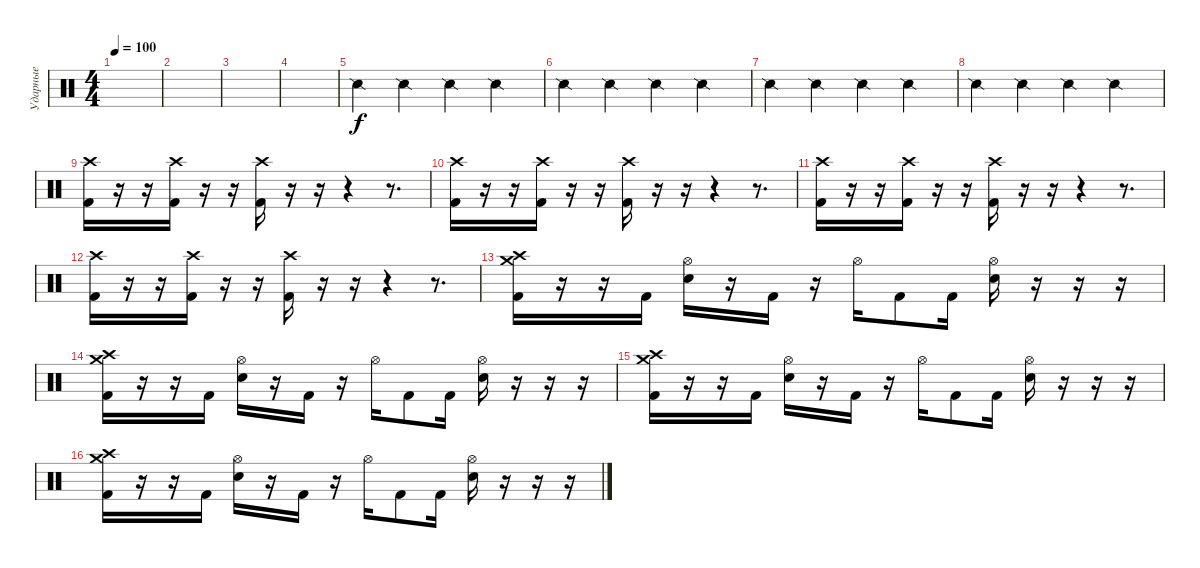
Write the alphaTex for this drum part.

\track ("Ударные" "Ударные") {instrument percussion}
\staff {score}
\articulation defaults
\ts (4 4)
\tempo 100
\clef neutral
\ks c
|
|
|
|
"Snare (side stick) 2".4 "Snare (side stick) 2".4 "Snare (side stick) 2".4 "Snare (side stick) 2".4 |
"Snare (side stick) 2".4 "Snare (side stick) 2".4 "Snare (side stick) 2".4 "Snare (side stick) 2".4 |
"Snare (side stick) 2".4 "Snare (side stick) 2".4 "Snare (side stick) 2".4 "Snare (side stick) 2".4 |
"Snare (side stick) 2".4 "Snare (side stick) 2".4 "Snare (side stick) 2".4 "Snare (side stick) 2".4 |
("Crash high (hit)" "Kick (hit) 2").16 r.16 r.16 ("Crash high (hit)" "Kick (hit) 2").16 r.16 r.16 ("Crash high (hit)" "Kick (hit) 2").16 r.16 r.16 r.4 r.8{d} |
("Crash high (hit)" "Kick (hit) 2").16 r.16 r.16 ("Crash high (hit)" "Kick (hit) 2").16 r.16 r.16 ("Crash high (hit)" "Kick (hit) 2").16 r.16 r.16 r.4 r.8{d} |
("Crash high (hit)" "Kick (hit) 2").16 r.16 r.16 ("Crash high (hit)" "Kick (hit) 2").16 r.16 r.16 ("Crash high (hit)" "Kick (hit) 2").16 r.16 r.16 r.4 r.8{d} |
("Crash high (hit)" "Kick (hit) 2").16 r.16 r.16 ("Crash high (hit)" "Kick (hit) 2").16 r.16 r.16 ("Crash high (hit)" "Kick (hit) 2").16 r.16 r.16 r.4 r.8{d} |
("Kick (hit) 2" "Crash high (hit)" "Crash medium (hit)").16 r.16 r.16 "Kick (hit) 2".16 ("Electric Snare (hit)" "Hi-Hat (open)").16 r.16 "Kick (hit) 2".16 r.16 "Hi-Hat (open)".16 "Kick (hit) 2".8 "Kick (hit) 2".16 ("Electric Snare (hit)" "Hi-Hat (open)").16 r.16 r.16 r.16 |
("Kick (hit) 2" "Crash high (hit)" "Crash medium (hit)").16 r.16 r.16 "Kick (hit) 2".16 ("Electric Snare (hit)" "Hi-Hat (open)").16 r.16 "Kick (hit) 2".16 r.16 "Hi-Hat (open)".16 "Kick (hit) 2".8 "Kick (hit) 2".16 ("Electric Snare (hit)" "Hi-Hat (open)").16 r.16 r.16 r.16 |
("Kick (hit) 2" "Crash high (hit)" "Crash medium (hit)").16 r.16 r.16 "Kick (hit) 2".16 ("Electric Snare (hit)" "Hi-Hat (open)").16 r.16 "Kick (hit) 2".16 r.16 "Hi-Hat (open)".16 "Kick (hit) 2".8 "Kick (hit) 2".16 ("Electric Snare (hit)" "Hi-Hat (open)").16 r.16 r.16 r.16 |
("Kick (hit) 2" "Crash high (hit)" "Crash medium (hit)").16 r.16 r.16 "Kick (hit) 2".16 ("Electric Snare (hit)" "Hi-Hat (open)").16 r.16 "Kick (hit) 2".16 r.16 "Hi-Hat (open)".16 "Kick (hit) 2".8 "Kick (hit) 2".16 ("Electric Snare (hit)" "Hi-Hat (open)").16 r.16 r.16 r.16
